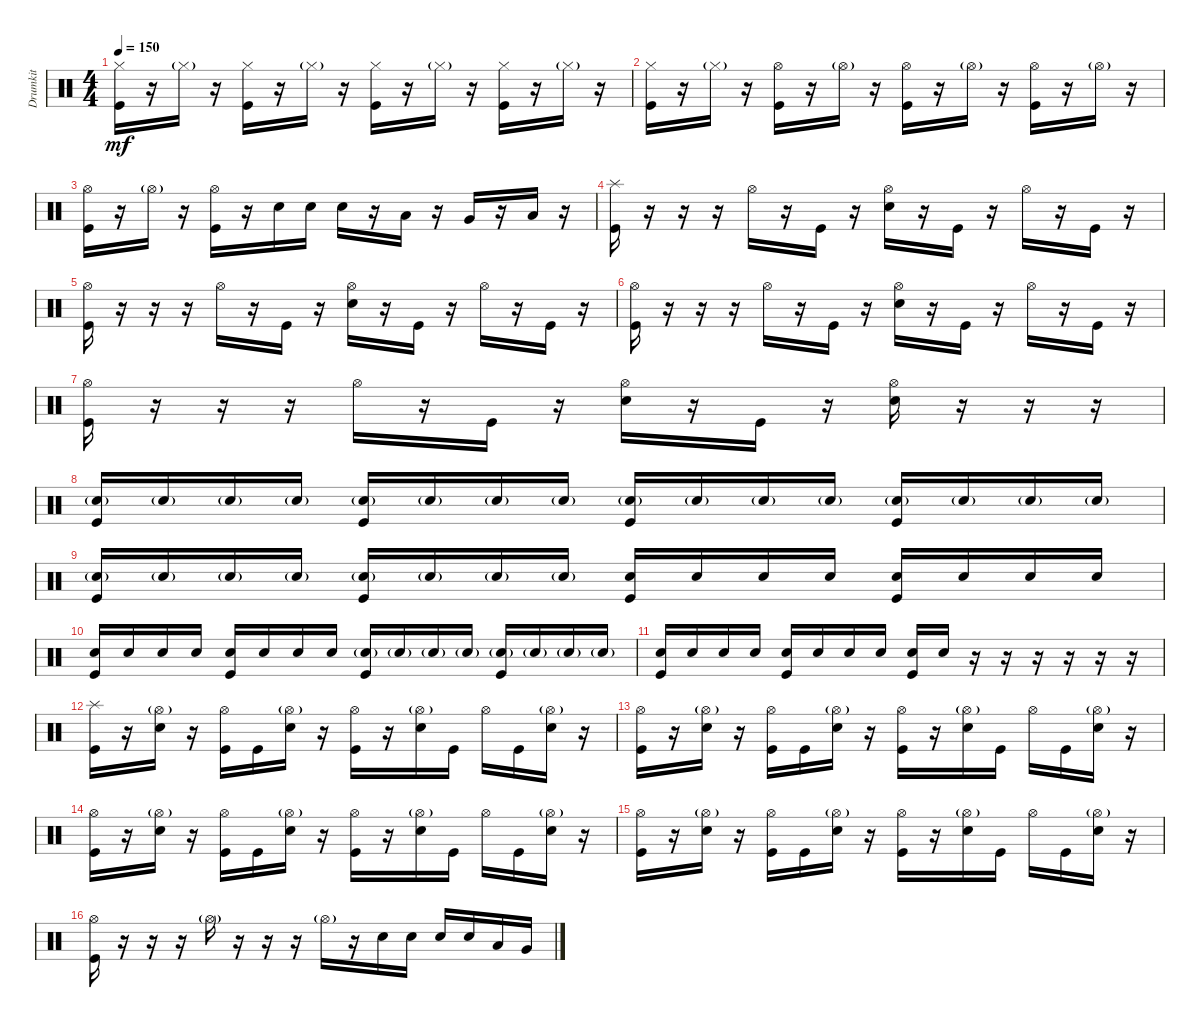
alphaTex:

\track ("Drumkit" "Drumkit") {instrument percussion}
\staff {score}
\articulation defaults
\ts (4 4)
\tempo 150
\clef neutral
\ks c
("Kick (hit)" "Hi-Hat (closed)").16{dy mf} r.16 "Hi-Hat (closed)"{g}.16 r.16 ("Kick (hit)" "Hi-Hat (closed)").16 r.16 "Hi-Hat (closed)"{g}.16 r.16 ("Kick (hit)" "Hi-Hat (closed)").16 r.16 "Hi-Hat (closed)"{g}.16 r.16 ("Kick (hit)" "Hi-Hat (closed)").16 r.16 "Hi-Hat (closed)"{g}.16 r.16 |
("Kick (hit)" "Hi-Hat (closed)").16 r.16 "Hi-Hat (closed)"{g}.16 r.16 ("Kick (hit)" "Hi-Hat (open)").16 r.16 "Hi-Hat (open)"{g}.16 r.16 ("Kick (hit)" "Hi-Hat (open)").16 r.16 "Hi-Hat (open)"{g}.16 r.16 ("Kick (hit)" "Hi-Hat (open)").16 r.16 "Hi-Hat (open)"{g}.16 r.16 |
("Kick (hit)" "Hi-Hat (open)").16 r.16 "Hi-Hat (open)"{g}.16 r.16 ("Kick (hit)" "Hi-Hat (open)").16 r.16 "Snare (hit) 2".16 "Snare (hit) 2".16 "Snare (hit) 2".16 r.16 "Low Tom (hit)".16 r.16 "Very Low Tom (hit)".16 r.16 "Low Floor Tom (hit)".16 r.16 |
("Kick (hit)" "Splash (hit)").16 r.16 r.16 r.16 "Hi-Hat (open)".16 r.16 "Kick (hit)".16 r.16 ("Snare (hit) 2" "Hi-Hat (open)").16 r.16 "Kick (hit)".16 r.16 "Hi-Hat (open)".16 r.16 "Kick (hit)".16 r.16 |
("Kick (hit)" "Hi-Hat (open)").16 r.16 r.16 r.16 "Hi-Hat (open)".16 r.16 "Kick (hit)".16 r.16 ("Snare (hit) 2" "Hi-Hat (open)").16 r.16 "Kick (hit)".16 r.16 "Hi-Hat (open)".16 r.16 "Kick (hit)".16 r.16 |
("Kick (hit)" "Hi-Hat (open)").16 r.16 r.16 r.16 "Hi-Hat (open)".16 r.16 "Kick (hit)".16 r.16 ("Snare (hit) 2" "Hi-Hat (open)").16 r.16 "Kick (hit)".16 r.16 "Hi-Hat (open)".16 r.16 "Kick (hit)".16 r.16 |
("Kick (hit)" "Hi-Hat (open)").16 r.16 r.16 r.16 "Hi-Hat (open)".16 r.16 "Kick (hit)".16 r.16 ("Snare (hit) 2" "Hi-Hat (open)").16 r.16 "Kick (hit)".16 r.16 ("Hi-Hat (open)" "Snare (hit) 2").16 r.16 r.16 r.16 |
("Kick (hit)" "Snare (hit) 2"{g}).16 "Snare (hit) 2"{g}.16 "Snare (hit) 2"{g}.16 "Snare (hit) 2"{g}.16 ("Kick (hit)" "Snare (hit) 2"{g}).16 "Snare (hit) 2"{g}.16 "Snare (hit) 2"{g}.16 "Snare (hit) 2"{g}.16 ("Kick (hit)" "Snare (hit) 2"{g}).16 "Snare (hit) 2"{g}.16 "Snare (hit) 2"{g}.16 "Snare (hit) 2"{g}.16 ("Kick (hit)" "Snare (hit) 2"{g}).16 "Snare (hit) 2"{g}.16 "Snare (hit) 2"{g}.16 "Snare (hit) 2"{g}.16 |
("Kick (hit)" "Snare (hit) 2"{g}).16 "Snare (hit) 2"{g}.16 "Snare (hit) 2"{g}.16 "Snare (hit) 2"{g}.16 ("Kick (hit)" "Snare (hit) 2"{g}).16 "Snare (hit) 2"{g}.16 "Snare (hit) 2"{g}.16 "Snare (hit) 2"{g}.16 ("Kick (hit)" "Snare (hit) 2").16 "Snare (hit) 2".16 "Snare (hit) 2".16 "Snare (hit) 2".16 ("Kick (hit)" "Snare (hit) 2").16 "Snare (hit) 2".16 "Snare (hit) 2".16 "Snare (hit) 2".16 |
("Kick (hit)" "Snare (hit) 2").16 "Snare (hit) 2".16 "Snare (hit) 2".16 "Snare (hit) 2".16 ("Kick (hit)" "Snare (hit) 2").16 "Snare (hit) 2".16 "Snare (hit) 2".16 "Snare (hit) 2".16 ("Kick (hit)" "Snare (hit) 2"{g}).16 "Snare (hit) 2"{g}.16 "Snare (hit) 2"{g}.16 "Snare (hit) 2"{g}.16 ("Kick (hit)" "Snare (hit) 2"{g}).16 "Snare (hit) 2"{g}.16 "Snare (hit) 2"{g}.16 "Snare (hit) 2"{g}.16 |
("Kick (hit)" "Snare (hit) 2").16 "Snare (hit) 2".16 "Snare (hit) 2".16 "Snare (hit) 2".16 ("Kick (hit)" "Snare (hit) 2").16 "Snare (hit) 2".16 "Snare (hit) 2".16 "Snare (hit) 2".16 ("Kick (hit)" "Snare (hit) 2").16 "Snare (hit) 2".16 r.16 r.16 r.16 r.16 r.16 r.16 |
("Kick (hit)" "Splash (hit)").16 r.16 ("Snare (hit) 2" "Hi-Hat (open)"{g}).16 r.16 ("Kick (hit)" "Hi-Hat (open)").16 "Kick (hit)".16 ("Snare (hit) 2" "Hi-Hat (open)"{g}).16 r.16 ("Kick (hit)" "Hi-Hat (open)").16 r.16 ("Snare (hit) 2" "Hi-Hat (open)"{g}).16 "Kick (hit)".16 "Hi-Hat (open)".16 "Kick (hit)".16 ("Snare (hit) 2" "Hi-Hat (open)"{g}).16 r.16 |
("Kick (hit)" "Hi-Hat (open)").16 r.16 ("Snare (hit) 2" "Hi-Hat (open)"{g}).16 r.16 ("Kick (hit)" "Hi-Hat (open)").16 "Kick (hit)".16 ("Snare (hit) 2" "Hi-Hat (open)"{g}).16 r.16 ("Kick (hit)" "Hi-Hat (open)").16 r.16 ("Snare (hit) 2" "Hi-Hat (open)"{g}).16 "Kick (hit)".16 "Hi-Hat (open)".16 "Kick (hit)".16 ("Snare (hit) 2" "Hi-Hat (open)"{g}).16 r.16 |
("Kick (hit)" "Hi-Hat (open)").16 r.16 ("Snare (hit) 2" "Hi-Hat (open)"{g}).16 r.16 ("Kick (hit)" "Hi-Hat (open)").16 "Kick (hit)".16 ("Snare (hit) 2" "Hi-Hat (open)"{g}).16 r.16 ("Kick (hit)" "Hi-Hat (open)").16 r.16 ("Snare (hit) 2" "Hi-Hat (open)"{g}).16 "Kick (hit)".16 "Hi-Hat (open)".16 "Kick (hit)".16 ("Snare (hit) 2" "Hi-Hat (open)"{g}).16 r.16 |
("Kick (hit)" "Hi-Hat (open)").16 r.16 ("Snare (hit) 2" "Hi-Hat (open)"{g}).16 r.16 ("Kick (hit)" "Hi-Hat (open)").16 "Kick (hit)".16 ("Snare (hit) 2" "Hi-Hat (open)"{g}).16 r.16 ("Kick (hit)" "Hi-Hat (open)").16 r.16 ("Snare (hit) 2" "Hi-Hat (open)"{g}).16 "Kick (hit)".16 "Hi-Hat (open)".16 "Kick (hit)".16 ("Snare (hit) 2" "Hi-Hat (open)"{g}).16 r.16 |
("Hi-Hat (open)" "Kick (hit)").16 r.16 r.16 r.16 "Hi-Hat (open)"{g}.16 r.16 r.16 r.16 "Hi-Hat (open)"{g}.16 r.16 "Snare (hit) 2".16 "Snare (hit) 2".16 "Snare (hit) 2".16 "Snare (hit) 2".16 "Low Tom (hit)".16 "Very Low Tom (hit)".16
